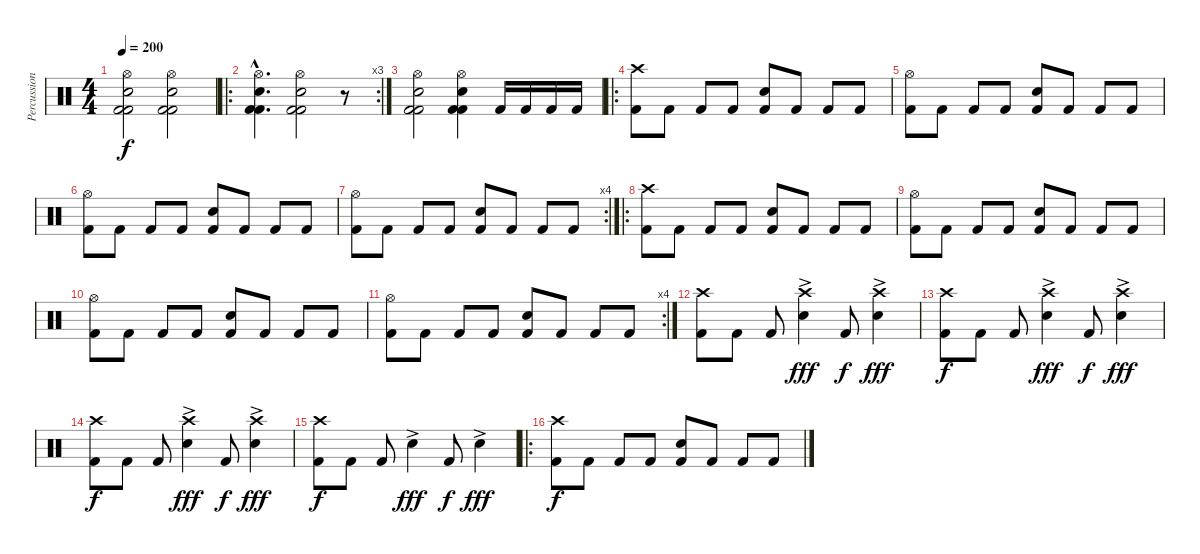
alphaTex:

\track ("Percussion" "Percussion") {instrument percussion}
\staff {score}
\articulation defaults
\ts (4 4)
\tempo 200
\clef neutral
\ks c
("Hi-Hat (open)" "Electric Snare (hit)" "Kick (hit) 2" "Kick (hit) 2").2{dy f} ("Hi-Hat (open)" "Electric Snare (hit)" "Kick (hit) 2" "Kick (hit) 2").2 |
\ro
\rc 3
("Hi-Hat (open)"{hac} "Electric Snare (hit)"{hac} "Kick (hit) 2"{hac} "Kick (hit) 2"{hac}).4{d} ("Hi-Hat (open)" "Electric Snare (hit)" "Kick (hit) 2" "Kick (hit) 2").2 r.8 |
("Hi-Hat (open)" "Electric Snare (hit)" "Kick (hit) 2" "Kick (hit) 2").2 ("Hi-Hat (open)" "Electric Snare (hit)" "Kick (hit) 2" "Kick (hit) 2").4 "Kick (hit) 2".16 "Kick (hit) 2".16 "Kick (hit) 2".16 "Kick (hit) 2".16 |
\ro
("Crash high (hit)" "Kick (hit) 2").8 "Kick (hit) 2".8 "Kick (hit) 2".8 "Kick (hit) 2".8 ("Electric Snare (hit)" "Kick (hit) 2").8 "Kick (hit) 2".8 "Kick (hit) 2".8 "Kick (hit) 2".8 |
("Hi-Hat (open)" "Kick (hit) 2").8 "Kick (hit) 2".8 "Kick (hit) 2".8 "Kick (hit) 2".8 ("Electric Snare (hit)" "Kick (hit) 2").8 "Kick (hit) 2".8 "Kick (hit) 2".8 "Kick (hit) 2".8 |
("Hi-Hat (open)" "Kick (hit) 2").8 "Kick (hit) 2".8 "Kick (hit) 2".8 "Kick (hit) 2".8 ("Electric Snare (hit)" "Kick (hit) 2").8 "Kick (hit) 2".8 "Kick (hit) 2".8 "Kick (hit) 2".8 |
\rc 4
("Hi-Hat (open)" "Kick (hit) 2").8 "Kick (hit) 2".8 "Kick (hit) 2".8 "Kick (hit) 2".8 ("Electric Snare (hit)" "Kick (hit) 2").8 "Kick (hit) 2".8 "Kick (hit) 2".8 "Kick (hit) 2".8 |
\ro
("Crash high (hit)" "Kick (hit) 2").8 "Kick (hit) 2".8 "Kick (hit) 2".8 "Kick (hit) 2".8 ("Electric Snare (hit)" "Kick (hit) 2").8 "Kick (hit) 2".8 "Kick (hit) 2".8 "Kick (hit) 2".8 |
("Hi-Hat (open)" "Kick (hit) 2").8 "Kick (hit) 2".8 "Kick (hit) 2".8 "Kick (hit) 2".8 ("Electric Snare (hit)" "Kick (hit) 2").8 "Kick (hit) 2".8 "Kick (hit) 2".8 "Kick (hit) 2".8 |
("Hi-Hat (open)" "Kick (hit) 2").8 "Kick (hit) 2".8 "Kick (hit) 2".8 "Kick (hit) 2".8 ("Electric Snare (hit)" "Kick (hit) 2").8 "Kick (hit) 2".8 "Kick (hit) 2".8 "Kick (hit) 2".8 |
\rc 4
("Hi-Hat (open)" "Kick (hit) 2").8 "Kick (hit) 2".8 "Kick (hit) 2".8 "Kick (hit) 2".8 ("Electric Snare (hit)" "Kick (hit) 2").8 "Kick (hit) 2".8 "Kick (hit) 2".8 "Kick (hit) 2".8 |
("Crash high (hit)" "Kick (hit) 2").8 "Kick (hit) 2".8 "Kick (hit) 2".8 ("Crash high (hit)" "Electric Snare (hit)"{ac}).4{dy fff} "Kick (hit) 2".8{dy f} ("Crash high (hit)" "Electric Snare (hit)"{ac}).4{dy fff} |
("Crash high (hit)" "Kick (hit) 2").8{dy f} "Kick (hit) 2".8 "Kick (hit) 2".8 ("Crash high (hit)" "Electric Snare (hit)"{ac}).4{dy fff} "Kick (hit) 2".8{dy f} ("Crash high (hit)" "Electric Snare (hit)"{ac}).4{dy fff} |
("Crash high (hit)" "Kick (hit) 2").8{dy f} "Kick (hit) 2".8 "Kick (hit) 2".8 ("Crash high (hit)" "Electric Snare (hit)"{ac}).4{dy fff} "Kick (hit) 2".8{dy f} ("Crash high (hit)" "Electric Snare (hit)"{ac}).4{dy fff} |
("Crash high (hit)" "Kick (hit) 2").8{dy f} "Kick (hit) 2".8 "Kick (hit) 2".8 "Electric Snare (hit)"{ac}.4{dy fff} "Kick (hit) 2".8{dy f} "Electric Snare (hit)"{ac}.4{dy fff} |
\ro
("Crash high (hit)" "Kick (hit) 2").8{dy f} "Kick (hit) 2".8 "Kick (hit) 2".8 "Kick (hit) 2".8 ("Electric Snare (hit)" "Kick (hit) 2").8 "Kick (hit) 2".8 "Kick (hit) 2".8 "Kick (hit) 2".8
